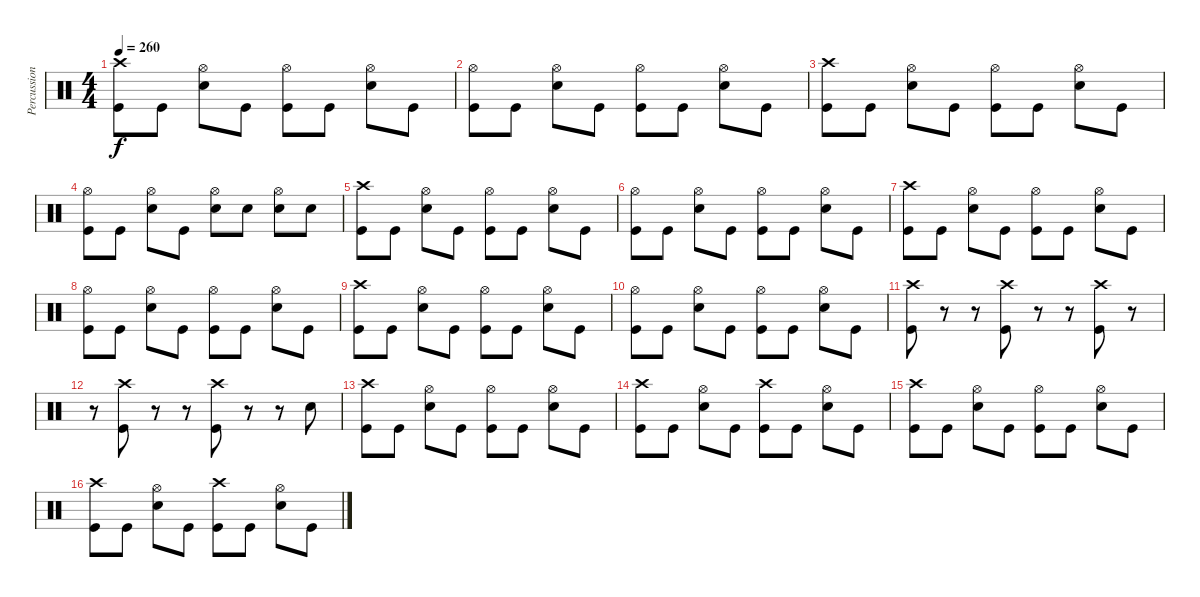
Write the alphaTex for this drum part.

\track ("Percussion" "Percussion") {instrument percussion}
\staff {score}
\articulation defaults
\ts (4 4)
\tempo 260
\clef neutral
\ks c
("Crash high (hit)" "Kick (hit)").8{dy f} "Kick (hit)".8 ("Hi-Hat (open)" "Snare (hit) 2").8 "Kick (hit)".8 ("Hi-Hat (open)" "Kick (hit)").8 "Kick (hit)".8 ("Hi-Hat (open)" "Snare (hit) 2").8 "Kick (hit)".8 |
("Hi-Hat (open)" "Kick (hit)").8 "Kick (hit)".8 ("Hi-Hat (open)" "Snare (hit) 2").8 "Kick (hit)".8 ("Hi-Hat (open)" "Kick (hit)").8 "Kick (hit)".8 ("Hi-Hat (open)" "Snare (hit) 2").8 "Kick (hit)".8 |
("Crash high (hit)" "Kick (hit)").8 "Kick (hit)".8 ("Hi-Hat (open)" "Snare (hit) 2").8 "Kick (hit)".8 ("Hi-Hat (open)" "Kick (hit)").8 "Kick (hit)".8 ("Hi-Hat (open)" "Snare (hit) 2").8 "Kick (hit)".8 |
("Hi-Hat (open)" "Kick (hit)").8 "Kick (hit)".8 ("Hi-Hat (open)" "Snare (hit) 2").8 "Kick (hit)".8 ("Hi-Hat (open)" "Snare (hit) 2").8 "Snare (hit) 2".8 ("Hi-Hat (open)" "Snare (hit) 2").8 "Snare (hit) 2".8 |
("Crash high (hit)" "Kick (hit)").8 "Kick (hit)".8 ("Hi-Hat (open)" "Snare (hit) 2").8 "Kick (hit)".8 ("Hi-Hat (open)" "Kick (hit)").8 "Kick (hit)".8 ("Hi-Hat (open)" "Snare (hit) 2").8 "Kick (hit)".8 |
("Hi-Hat (open)" "Kick (hit)").8 "Kick (hit)".8 ("Hi-Hat (open)" "Snare (hit) 2").8 "Kick (hit)".8 ("Hi-Hat (open)" "Kick (hit)").8 "Kick (hit)".8 ("Hi-Hat (open)" "Snare (hit) 2").8 "Kick (hit)".8 |
("Crash high (hit)" "Kick (hit)").8 "Kick (hit)".8 ("Hi-Hat (open)" "Snare (hit) 2").8 "Kick (hit)".8 ("Hi-Hat (open)" "Kick (hit)").8 "Kick (hit)".8 ("Hi-Hat (open)" "Snare (hit) 2").8 "Kick (hit)".8 |
("Hi-Hat (open)" "Kick (hit)").8 "Kick (hit)".8 ("Hi-Hat (open)" "Snare (hit) 2").8 "Kick (hit)".8 ("Hi-Hat (open)" "Kick (hit)").8 "Kick (hit)".8 ("Hi-Hat (open)" "Snare (hit) 2").8 "Kick (hit)".8 |
("Crash high (hit)" "Kick (hit)").8 "Kick (hit)".8 ("Hi-Hat (open)" "Snare (hit) 2").8 "Kick (hit)".8 ("Hi-Hat (open)" "Kick (hit)").8 "Kick (hit)".8 ("Hi-Hat (open)" "Snare (hit) 2").8 "Kick (hit)".8 |
("Hi-Hat (open)" "Kick (hit)").8 "Kick (hit)".8 ("Hi-Hat (open)" "Snare (hit) 2").8 "Kick (hit)".8 ("Hi-Hat (open)" "Kick (hit)").8 "Kick (hit)".8 ("Hi-Hat (open)" "Snare (hit) 2").8 "Kick (hit)".8 |
("Crash high (hit)" "Kick (hit)").8 r.8 r.8 ("Crash high (hit)" "Kick (hit)").8 r.8 r.8 ("Crash high (hit)" "Kick (hit)").8 r.8 |
r.8 ("Crash high (hit)" "Kick (hit)").8 r.8 r.8 ("Crash high (hit)" "Kick (hit)").8 r.8 r.8 "Snare (hit) 2".8 |
("Crash high (hit)" "Kick (hit)").8 "Kick (hit)".8 ("Hi-Hat (open)" "Snare (hit) 2").8 "Kick (hit)".8 ("Hi-Hat (open)" "Kick (hit)").8 "Kick (hit)".8 ("Hi-Hat (open)" "Snare (hit) 2").8 "Kick (hit)".8 |
("Crash high (hit)" "Kick (hit)").8 "Kick (hit)".8 ("Hi-Hat (open)" "Snare (hit) 2").8 "Kick (hit)".8 ("Crash high (hit)" "Kick (hit)").8 "Kick (hit)".8 ("Hi-Hat (open)" "Snare (hit) 2").8 "Kick (hit)".8 |
("Crash high (hit)" "Kick (hit)").8 "Kick (hit)".8 ("Hi-Hat (open)" "Snare (hit) 2").8 "Kick (hit)".8 ("Hi-Hat (open)" "Kick (hit)").8 "Kick (hit)".8 ("Hi-Hat (open)" "Snare (hit) 2").8 "Kick (hit)".8 |
("Crash high (hit)" "Kick (hit)").8 "Kick (hit)".8 ("Hi-Hat (open)" "Snare (hit) 2").8 "Kick (hit)".8 ("Crash high (hit)" "Kick (hit)").8 "Kick (hit)".8 ("Hi-Hat (open)" "Snare (hit) 2").8 "Kick (hit)".8
